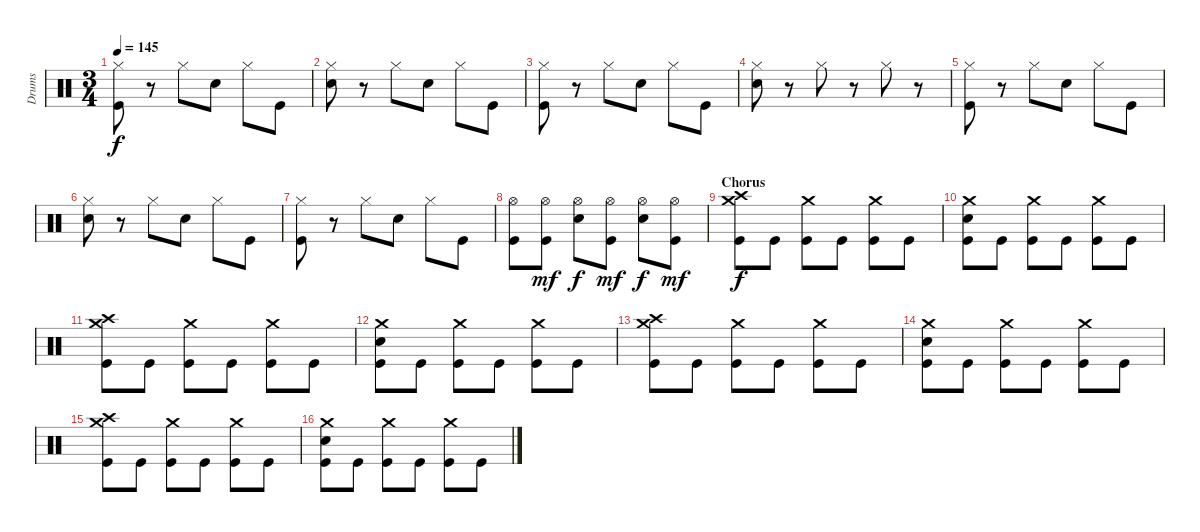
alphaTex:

\track ("Drums" "Drums") {instrument percussion}
\staff {score}
\articulation defaults
\ts (3 4)
\tempo 145
\clef neutral
\ks c
("Hi-Hat (closed)" "Kick (hit)").8{dy f} r.8 "Hi-Hat (closed)".8 "Electric Snare (hit)".8 "Hi-Hat (closed)".8 "Kick (hit)".8 |
("Hi-Hat (closed)" "Electric Snare (hit)").8 r.8 "Hi-Hat (closed)".8 "Electric Snare (hit)".8 "Hi-Hat (closed)".8 "Kick (hit)".8 |
("Hi-Hat (closed)" "Kick (hit)").8 r.8 "Hi-Hat (closed)".8 "Electric Snare (hit)".8 "Hi-Hat (closed)".8 "Kick (hit)".8 |
("Hi-Hat (closed)" "Electric Snare (hit)").8 r.8 "Hi-Hat (closed)".8 r.8 "Hi-Hat (closed)".8 r.8 |
("Hi-Hat (closed)" "Kick (hit)").8 r.8 "Hi-Hat (closed)".8 "Electric Snare (hit)".8 "Hi-Hat (closed)".8 "Kick (hit)".8 |
("Hi-Hat (closed)" "Electric Snare (hit)").8 r.8 "Hi-Hat (closed)".8 "Electric Snare (hit)".8 "Hi-Hat (closed)".8 "Kick (hit)".8 |
("Hi-Hat (closed)" "Kick (hit)").8 r.8 "Hi-Hat (closed)".8 "Electric Snare (hit)".8 "Hi-Hat (closed)".8 "Kick (hit)".8 |
("Hi-Hat (open)" "Kick (hit)").8 ("Hi-Hat (open)" "Kick (hit)").8{dy mf} ("Hi-Hat (open)" "Electric Snare (hit)").8{dy f} ("Hi-Hat (open)" "Kick (hit)").8{dy mf} ("Hi-Hat (open)" "Electric Snare (hit)").8{dy f} ("Hi-Hat (open)" "Kick (hit)").8{dy mf} |
\section ("" "Chorus")
("Crash high (hit)" "Crash medium (hit)" "Kick (hit)").8{dy f} "Kick (hit)".8 ("Crash medium (hit)" "Kick (hit)").8 "Kick (hit)".8 ("Crash medium (hit)" "Kick (hit)").8 "Kick (hit)".8 |
("Crash medium (hit)" "Electric Snare (hit)" "Kick (hit)").8 "Kick (hit)".8 ("Crash medium (hit)" "Kick (hit)").8 "Kick (hit)".8 ("Crash medium (hit)" "Kick (hit)").8 "Kick (hit)".8 |
("Crash high (hit)" "Crash medium (hit)" "Kick (hit)").8 "Kick (hit)".8 ("Crash medium (hit)" "Kick (hit)").8 "Kick (hit)".8 ("Crash medium (hit)" "Kick (hit)").8 "Kick (hit)".8 |
("Crash medium (hit)" "Electric Snare (hit)" "Kick (hit)").8 "Kick (hit)".8 ("Crash medium (hit)" "Kick (hit)").8 "Kick (hit)".8 ("Crash medium (hit)" "Kick (hit)").8 "Kick (hit)".8 |
("Crash high (hit)" "Crash medium (hit)" "Kick (hit)").8 "Kick (hit)".8 ("Crash medium (hit)" "Kick (hit)").8 "Kick (hit)".8 ("Crash medium (hit)" "Kick (hit)").8 "Kick (hit)".8 |
("Crash medium (hit)" "Electric Snare (hit)" "Kick (hit)").8 "Kick (hit)".8 ("Crash medium (hit)" "Kick (hit)").8 "Kick (hit)".8 ("Crash medium (hit)" "Kick (hit)").8 "Kick (hit)".8 |
("Crash high (hit)" "Crash medium (hit)" "Kick (hit)").8 "Kick (hit)".8 ("Crash medium (hit)" "Kick (hit)").8 "Kick (hit)".8 ("Crash medium (hit)" "Kick (hit)").8 "Kick (hit)".8 |
("Crash medium (hit)" "Electric Snare (hit)" "Kick (hit)").8 "Kick (hit)".8 ("Crash medium (hit)" "Kick (hit)").8 "Kick (hit)".8 ("Crash medium (hit)" "Kick (hit)").8 "Kick (hit)".8
